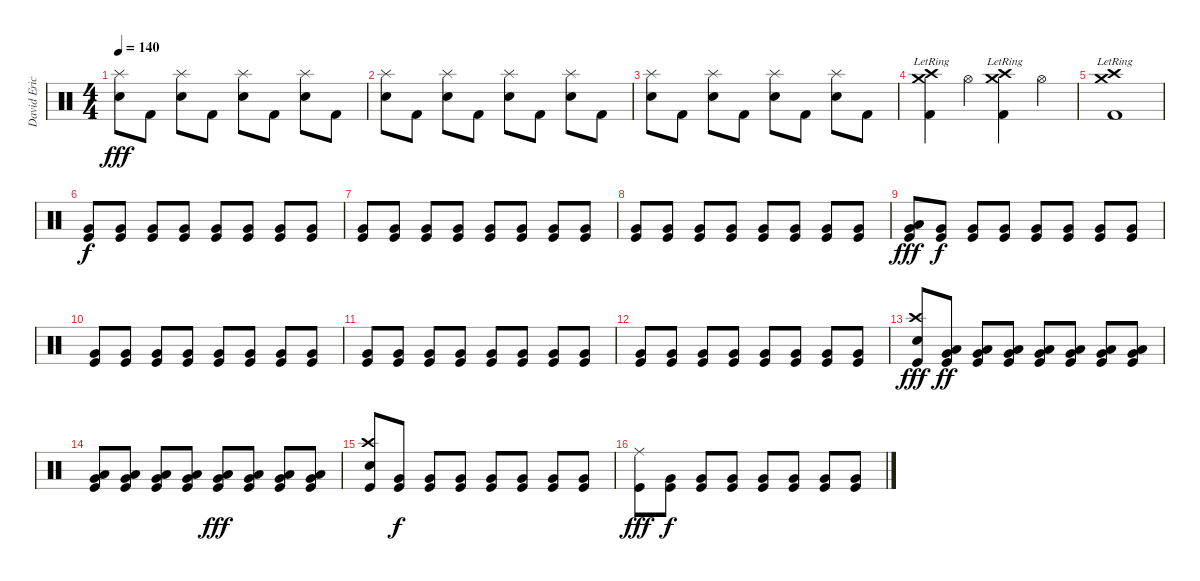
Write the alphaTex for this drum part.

\track ("David Eric Grohl" "David Eric") {instrument percussion}
\staff {score}
\articulation defaults
\ts (4 4)
\tempo 140
\clef neutral
\ks c
("Electric Snare (hit)" "Splash (hit)").8{dy fff} "Kick (hit) 2".8 ("Electric Snare (hit)" "Splash (hit)").8 "Kick (hit) 2".8 ("Electric Snare (hit)" "Splash (hit)").8 "Kick (hit) 2".8 ("Electric Snare (hit)" "Splash (hit)").8 "Kick (hit) 2".8 |
("Electric Snare (hit)" "Splash (hit)").8 "Kick (hit) 2".8 ("Electric Snare (hit)" "Splash (hit)").8 "Kick (hit) 2".8 ("Electric Snare (hit)" "Splash (hit)").8 "Kick (hit) 2".8 ("Electric Snare (hit)" "Splash (hit)").8 "Kick (hit) 2".8 |
("Electric Snare (hit)" "Splash (hit)").8 "Kick (hit) 2".8 ("Electric Snare (hit)" "Splash (hit)").8 "Kick (hit) 2".8 ("Electric Snare (hit)" "Splash (hit)").8 "Kick (hit) 2".8 ("Electric Snare (hit)" "Splash (hit)").8 "Kick (hit) 2".8 |
("Crash high (hit)"{lr} "Crash medium (hit)"{lr} "Kick (hit) 2").4 "Hi-Hat (open)".4 ("Crash high (hit)"{lr} "Crash medium (hit)" "Kick (hit) 2").4 "Hi-Hat (open)".4 |
("Crash high (hit)"{lr} "Crash medium (hit)"{lr} "Kick (hit) 2").1 |
("Very Low Tom (hit)" "Kick (hit)").8{dy f} ("Very Low Tom (hit)" "Kick (hit)").8 ("Very Low Tom (hit)" "Kick (hit)").8 ("Very Low Tom (hit)" "Kick (hit)").8 ("Very Low Tom (hit)" "Kick (hit)").8 ("Very Low Tom (hit)" "Kick (hit)").8 ("Very Low Tom (hit)" "Kick (hit)").8 ("Very Low Tom (hit)" "Kick (hit)").8 |
("Very Low Tom (hit)" "Kick (hit)").8 ("Very Low Tom (hit)" "Kick (hit)").8 ("Very Low Tom (hit)" "Kick (hit)").8 ("Very Low Tom (hit)" "Kick (hit)").8 ("Very Low Tom (hit)" "Kick (hit)").8 ("Very Low Tom (hit)" "Kick (hit)").8 ("Very Low Tom (hit)" "Kick (hit)").8 ("Very Low Tom (hit)" "Kick (hit)").8 |
("Very Low Tom (hit)" "Kick (hit)").8 ("Very Low Tom (hit)" "Kick (hit)").8 ("Very Low Tom (hit)" "Kick (hit)").8 ("Very Low Tom (hit)" "Kick (hit)").8 ("Very Low Tom (hit)" "Kick (hit)").8 ("Very Low Tom (hit)" "Kick (hit)").8 ("Very Low Tom (hit)" "Kick (hit)").8 ("Very Low Tom (hit)" "Kick (hit)").8 |
("Low Tom (hit)" "Very Low Tom (hit)" "Kick (hit)").8{dy fff} ("Very Low Tom (hit)" "Kick (hit)").8{dy f} ("Very Low Tom (hit)" "Kick (hit)").8 ("Very Low Tom (hit)" "Kick (hit)").8 ("Very Low Tom (hit)" "Kick (hit)").8 ("Very Low Tom (hit)" "Kick (hit)").8 ("Very Low Tom (hit)" "Kick (hit)").8 ("Very Low Tom (hit)" "Kick (hit)").8 |
("Very Low Tom (hit)" "Kick (hit)").8 ("Very Low Tom (hit)" "Kick (hit)").8 ("Very Low Tom (hit)" "Kick (hit)").8 ("Very Low Tom (hit)" "Kick (hit)").8 ("Very Low Tom (hit)" "Kick (hit)").8 ("Very Low Tom (hit)" "Kick (hit)").8 ("Very Low Tom (hit)" "Kick (hit)").8 ("Very Low Tom (hit)" "Kick (hit)").8 |
("Very Low Tom (hit)" "Kick (hit)").8 ("Very Low Tom (hit)" "Kick (hit)").8 ("Very Low Tom (hit)" "Kick (hit)").8 ("Very Low Tom (hit)" "Kick (hit)").8 ("Very Low Tom (hit)" "Kick (hit)").8 ("Very Low Tom (hit)" "Kick (hit)").8 ("Very Low Tom (hit)" "Kick (hit)").8 ("Very Low Tom (hit)" "Kick (hit)").8 |
("Very Low Tom (hit)" "Kick (hit)").8 ("Very Low Tom (hit)" "Kick (hit)").8 ("Very Low Tom (hit)" "Kick (hit)").8 ("Very Low Tom (hit)" "Kick (hit)").8 ("Very Low Tom (hit)" "Kick (hit)").8 ("Very Low Tom (hit)" "Kick (hit)").8 ("Very Low Tom (hit)" "Kick (hit)").8 ("Very Low Tom (hit)" "Kick (hit)").8 |
("Crash high (hit)" "Electric Snare (hit)" "Kick (hit)").8{dy fff} ("Low Tom (hit)" "Very Low Tom (hit)" "Kick (hit)").8{dy ff} ("Low Tom (hit)" "Very Low Tom (hit)" "Kick (hit)").8 ("Low Tom (hit)" "Very Low Tom (hit)" "Kick (hit)").8 ("Low Tom (hit)" "Very Low Tom (hit)" "Kick (hit)").8 ("Low Tom (hit)" "Very Low Tom (hit)" "Kick (hit)").8 ("Low Tom (hit)" "Very Low Tom (hit)" "Kick (hit)").8 ("Low Tom (hit)" "Very Low Tom (hit)" "Kick (hit)").8 |
("Low Tom (hit)" "Very Low Tom (hit)" "Kick (hit)").8 ("Low Tom (hit)" "Very Low Tom (hit)" "Kick (hit)").8 ("Low Tom (hit)" "Very Low Tom (hit)" "Kick (hit)").8 ("Low Tom (hit)" "Very Low Tom (hit)" "Kick (hit)").8 ("Low Tom (hit)" "Very Low Tom (hit)" "Kick (hit)").8{dy fff} ("Low Tom (hit)" "Very Low Tom (hit)" "Kick (hit)").8 ("Low Tom (hit)" "Very Low Tom (hit)" "Kick (hit)").8 ("Low Tom (hit)" "Very Low Tom (hit)" "Kick (hit)").8 |
("Crash high (hit)" "Electric Snare (hit)" "Kick (hit)").8 ("Very Low Tom (hit)" "Kick (hit)").8{dy f} ("Very Low Tom (hit)" "Kick (hit)").8 ("Very Low Tom (hit)" "Kick (hit)").8 ("Very Low Tom (hit)" "Kick (hit)").8 ("Very Low Tom (hit)" "Kick (hit)").8 ("Very Low Tom (hit)" "Kick (hit)").8 ("Very Low Tom (hit)" "Kick (hit)").8 |
("Ride (middle)" "Kick (hit)").8{dy fff} ("Very Low Tom (hit)" "Kick (hit)").8{dy f} ("Very Low Tom (hit)" "Kick (hit)").8 ("Very Low Tom (hit)" "Kick (hit)").8 ("Very Low Tom (hit)" "Kick (hit)").8 ("Very Low Tom (hit)" "Kick (hit)").8 ("Very Low Tom (hit)" "Kick (hit)").8 ("Very Low Tom (hit)" "Kick (hit)").8
